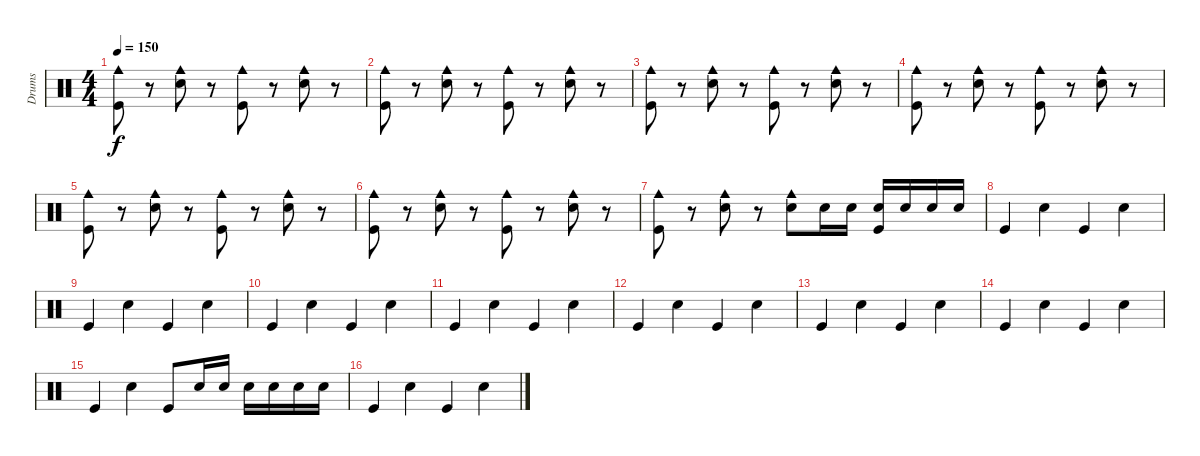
\track ("Drums" "Drums") {instrument percussion}
\staff {score}
\articulation defaults
\ts (4 4)
\tempo 150
\clef neutral
\ks c
("Cowbell medium (hit)" "Kick (hit)").8{dy f} r.8 ("Cowbell medium (hit)" "Snare (hit) 2").8 r.8 ("Cowbell medium (hit)" "Kick (hit)").8 r.8 ("Cowbell medium (hit)" "Snare (hit) 2").8 r.8 |
("Cowbell medium (hit)" "Kick (hit)").8 r.8 ("Cowbell medium (hit)" "Snare (hit) 2").8 r.8 ("Cowbell medium (hit)" "Kick (hit)").8 r.8 ("Cowbell medium (hit)" "Snare (hit) 2").8 r.8 |
("Cowbell medium (hit)" "Kick (hit)").8 r.8 ("Cowbell medium (hit)" "Snare (hit) 2").8 r.8 ("Cowbell medium (hit)" "Kick (hit)").8 r.8 ("Cowbell medium (hit)" "Snare (hit) 2").8 r.8 |
("Cowbell medium (hit)" "Kick (hit)").8 r.8 ("Cowbell medium (hit)" "Snare (hit) 2").8 r.8 ("Cowbell medium (hit)" "Kick (hit)").8 r.8 ("Cowbell medium (hit)" "Snare (hit) 2").8 r.8 |
("Cowbell medium (hit)" "Kick (hit)").8 r.8 ("Cowbell medium (hit)" "Snare (hit) 2").8 r.8 ("Cowbell medium (hit)" "Kick (hit)").8 r.8 ("Cowbell medium (hit)" "Snare (hit) 2").8 r.8 |
("Cowbell medium (hit)" "Kick (hit)").8 r.8 ("Cowbell medium (hit)" "Snare (hit) 2").8 r.8 ("Cowbell medium (hit)" "Kick (hit)").8 r.8 ("Cowbell medium (hit)" "Snare (hit) 2").8 r.8 |
("Cowbell medium (hit)" "Kick (hit)").8 r.8 ("Cowbell medium (hit)" "Snare (hit) 2").8 r.8 ("Cowbell medium (hit)" "Snare (hit) 2").8 "Snare (hit) 2".16 "Snare (hit) 2".16 ("Snare (hit) 2" "Kick (hit)").16 "Snare (hit) 2".16 "Snare (hit) 2".16 "Snare (hit) 2".16 |
"Kick (hit)".4 "Snare (hit) 2".4 "Kick (hit)".4 "Snare (hit) 2".4 |
"Kick (hit)".4 "Snare (hit) 2".4 "Kick (hit)".4 "Snare (hit) 2".4 |
"Kick (hit)".4 "Snare (hit) 2".4 "Kick (hit)".4 "Snare (hit) 2".4 |
"Kick (hit)".4 "Snare (hit) 2".4 "Kick (hit)".4 "Snare (hit) 2".4 |
"Kick (hit)".4 "Snare (hit) 2".4 "Kick (hit)".4 "Snare (hit) 2".4 |
"Kick (hit)".4 "Snare (hit) 2".4 "Kick (hit)".4 "Snare (hit) 2".4 |
"Kick (hit)".4 "Snare (hit) 2".4 "Kick (hit)".4 "Snare (hit) 2".4 |
"Kick (hit)".4 "Snare (hit) 2".4 "Kick (hit)".8 "Snare (hit) 2".16 "Snare (hit) 2".16 "Snare (hit) 2".16 "Snare (hit) 2".16 "Snare (hit) 2".16 "Snare (hit) 2".16 |
"Kick (hit)".4 "Snare (hit) 2".4 "Kick (hit)".4 "Snare (hit) 2".4
